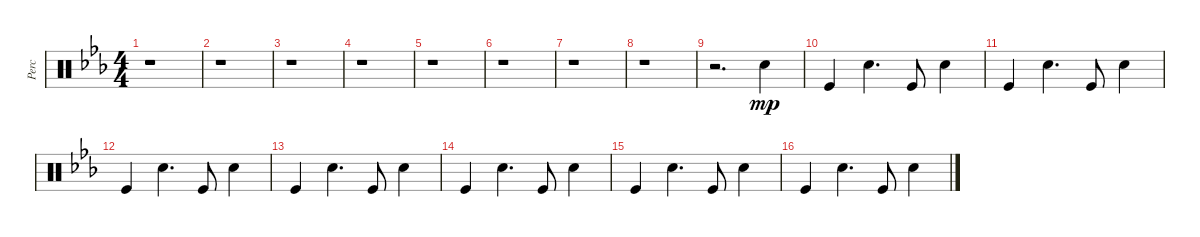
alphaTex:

\defaultSystemsLayout 4
\bracketExtendMode groupsimilarinstruments
\otherSystemsTrackNameOrientation horizontal
\track ("Percussions" "Perc") {instrument percussion}
\staff {score}
\articulation defaults
\ts (4 4)
\tempo (140 hide)
\clef neutral
\scale
0.688889
\ks cminor
r.1{dy mp} |
\scale
0.311111 r.1 |
\tempo (140 0.43125 hide)
\scale
0.5 r.1 |
\scale
0.5 r.1 |
\scale
0.5 r.1 |
\scale
0.5 r.1 |
\scale
1.00309
\scale
0.5 r.1 |
\scale
0.996905
\scale
0.5 r.1 |
\scale
0.5 r.2{d} "Snare (hit) 2".4 |
\scale
0.5 "Kick (hit)".4 "Snare (hit) 2".4{d} "Kick (hit)".8 "Snare (hit) 2".4 |
\scale
0.5 "Kick (hit)".4 "Snare (hit) 2".4{d} "Kick (hit)".8 "Snare (hit) 2".4 |
\scale
0.5 "Kick (hit)".4 "Snare (hit) 2".4{d} "Kick (hit)".8 "Snare (hit) 2".4 |
"Kick (hit)".4 "Snare (hit) 2".4{d} "Kick (hit)".8 "Snare (hit) 2".4 |
"Kick (hit)".4 "Snare (hit) 2".4{d} "Kick (hit)".8 "Snare (hit) 2".4 |
"Kick (hit)".4 "Snare (hit) 2".4{d} "Kick (hit)".8 "Snare (hit) 2".4 |
"Kick (hit)".4 "Snare (hit) 2".4{d} "Kick (hit)".8 "Snare (hit) 2".4
